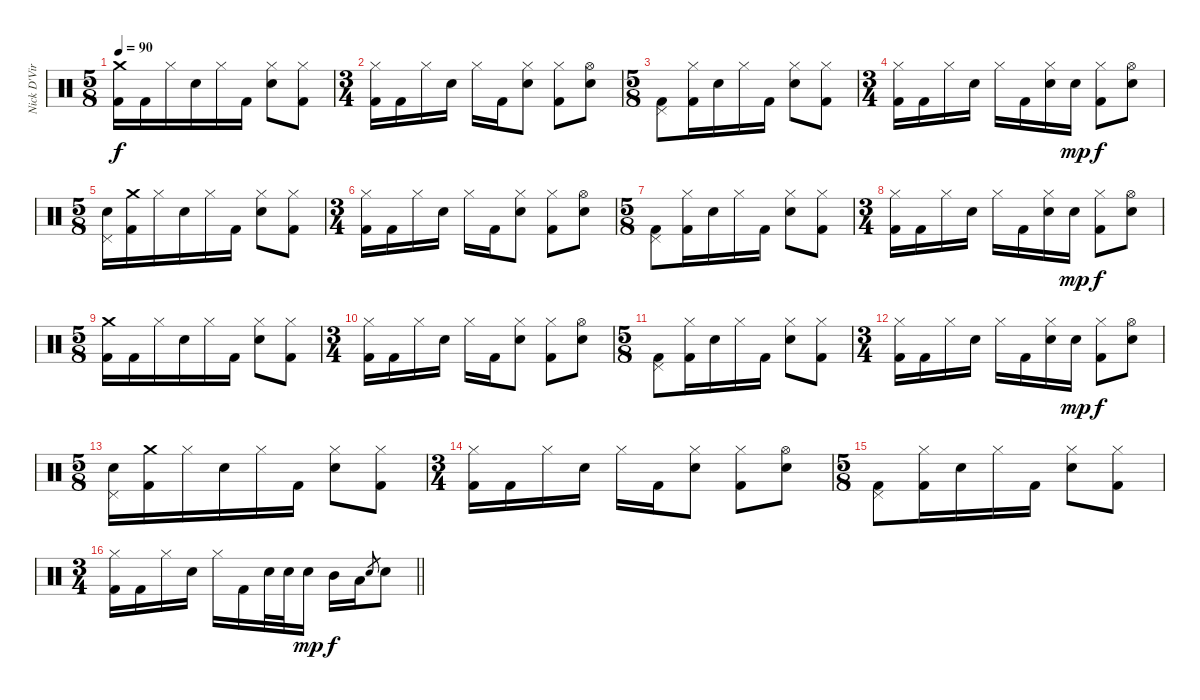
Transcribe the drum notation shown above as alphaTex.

\track ("Nick D'Virgilio" "Nick D'Vir") {instrument percussion}
\staff {score}
\articulation defaults
\ts (5 8)
\tempo 90
\clef neutral
\ks c
("Crash medium (hit)" "Kick (hit) 2").16{dy f} "Kick (hit) 2".16 "Hi-Hat (closed)".16 "Electric Snare (hit)".16 "Hi-Hat (closed)".16 "Kick (hit) 2".16 ("Hi-Hat (closed)" "Electric Snare (hit)").8 ("Hi-Hat (closed)" "Kick (hit) 2").8 |
\ts (3 4)
("Hi-Hat (closed)" "Kick (hit) 2").16 "Kick (hit) 2".16 "Hi-Hat (closed)".16 "Electric Snare (hit)".16 "Hi-Hat (closed)".16 "Kick (hit) 2".16 ("Hi-Hat (closed)" "Electric Snare (hit)").8 ("Hi-Hat (closed)" "Kick (hit) 2").8 ("Hi-Hat (open)" "Electric Snare (hit)").8 |
\ts (5 8)
("Pedal Hi-Hat (hit)" "Kick (hit) 2").8 ("Hi-Hat (closed)" "Kick (hit) 2").16 "Electric Snare (hit)".16 "Hi-Hat (closed)".16 "Kick (hit) 2".16 ("Hi-Hat (closed)" "Electric Snare (hit)").8 ("Hi-Hat (closed)" "Kick (hit) 2").8 |
\ts (3 4)
("Hi-Hat (closed)" "Kick (hit) 2").16 "Kick (hit) 2".16 "Hi-Hat (closed)".16 "Electric Snare (hit)".16 "Hi-Hat (closed)".16 "Kick (hit) 2".16 ("Hi-Hat (closed)" "Electric Snare (hit)").16 "Electric Snare (hit)".16{dy mp} ("Hi-Hat (closed)" "Kick (hit) 2").8{dy f} ("Hi-Hat (open)" "Electric Snare (hit)").8 |
\ts (5 8)
("Pedal Hi-Hat (hit)" "Electric Snare (hit)").16 ("Crash medium (hit)" "Kick (hit) 2").16 "Hi-Hat (closed)".16 "Electric Snare (hit)".16 "Hi-Hat (closed)".16 "Kick (hit) 2".16 ("Hi-Hat (closed)" "Electric Snare (hit)").8 ("Hi-Hat (closed)" "Kick (hit) 2").8 |
\ts (3 4)
("Hi-Hat (closed)" "Kick (hit) 2").16 "Kick (hit) 2".16 "Hi-Hat (closed)".16 "Electric Snare (hit)".16 "Hi-Hat (closed)".16 "Kick (hit) 2".16 ("Hi-Hat (closed)" "Electric Snare (hit)").8 ("Hi-Hat (closed)" "Kick (hit) 2").8 ("Hi-Hat (open)" "Electric Snare (hit)").8 |
\ts (5 8)
("Pedal Hi-Hat (hit)" "Kick (hit) 2").8 ("Hi-Hat (closed)" "Kick (hit) 2").16 "Electric Snare (hit)".16 "Hi-Hat (closed)".16 "Kick (hit) 2".16 ("Hi-Hat (closed)" "Electric Snare (hit)").8 ("Hi-Hat (closed)" "Kick (hit) 2").8 |
\ts (3 4)
("Hi-Hat (closed)" "Kick (hit) 2").16 "Kick (hit) 2".16 "Hi-Hat (closed)".16 "Electric Snare (hit)".16 "Hi-Hat (closed)".16 "Kick (hit) 2".16 ("Hi-Hat (closed)" "Electric Snare (hit)").16 "Electric Snare (hit)".16{dy mp} ("Hi-Hat (closed)" "Kick (hit) 2").8{dy f} ("Hi-Hat (open)" "Electric Snare (hit)").8 |
\ts (5 8)
("Crash medium (hit)" "Kick (hit) 2").16 "Kick (hit) 2".16 "Hi-Hat (closed)".16 "Electric Snare (hit)".16 "Hi-Hat (closed)".16 "Kick (hit) 2".16 ("Hi-Hat (closed)" "Electric Snare (hit)").8 ("Hi-Hat (closed)" "Kick (hit) 2").8 |
\ts (3 4)
("Hi-Hat (closed)" "Kick (hit) 2").16 "Kick (hit) 2".16 "Hi-Hat (closed)".16 "Electric Snare (hit)".16 "Hi-Hat (closed)".16 "Kick (hit) 2".16 ("Hi-Hat (closed)" "Electric Snare (hit)").8 ("Hi-Hat (closed)" "Kick (hit) 2").8 ("Hi-Hat (open)" "Electric Snare (hit)").8 |
\ts (5 8)
("Pedal Hi-Hat (hit)" "Kick (hit) 2").8 ("Hi-Hat (closed)" "Kick (hit) 2").16 "Electric Snare (hit)".16 "Hi-Hat (closed)".16 "Kick (hit) 2".16 ("Hi-Hat (closed)" "Electric Snare (hit)").8 ("Hi-Hat (closed)" "Kick (hit) 2").8 |
\ts (3 4)
("Hi-Hat (closed)" "Kick (hit) 2").16 "Kick (hit) 2".16 "Hi-Hat (closed)".16 "Electric Snare (hit)".16 "Hi-Hat (closed)".16 "Kick (hit) 2".16 ("Hi-Hat (closed)" "Electric Snare (hit)").16 "Electric Snare (hit)".16{dy mp} ("Hi-Hat (closed)" "Kick (hit) 2").8{dy f} ("Hi-Hat (open)" "Electric Snare (hit)").8 |
\ts (5 8)
("Pedal Hi-Hat (hit)" "Electric Snare (hit)").16 ("Crash medium (hit)" "Kick (hit) 2").16 "Hi-Hat (closed)".16 "Electric Snare (hit)".16 "Hi-Hat (closed)".16 "Kick (hit) 2".16 ("Hi-Hat (closed)" "Electric Snare (hit)").8 ("Hi-Hat (closed)" "Kick (hit) 2").8 |
\ts (3 4)
("Hi-Hat (closed)" "Kick (hit) 2").16 "Kick (hit) 2".16 "Hi-Hat (closed)".16 "Electric Snare (hit)".16 "Hi-Hat (closed)".16 "Kick (hit) 2".16 ("Hi-Hat (closed)" "Electric Snare (hit)").8 ("Hi-Hat (closed)" "Kick (hit) 2").8 ("Hi-Hat (open)" "Electric Snare (hit)").8 |
\ts (5 8)
("Pedal Hi-Hat (hit)" "Kick (hit) 2").8 ("Hi-Hat (closed)" "Kick (hit) 2").16 "Electric Snare (hit)".16 "Hi-Hat (closed)".16 "Kick (hit) 2".16 ("Hi-Hat (closed)" "Electric Snare (hit)").8 ("Hi-Hat (closed)" "Kick (hit) 2").8 |
\ts (3 4)
\barLineRight lightlight
("Hi-Hat (closed)" "Kick (hit) 2").16 "Kick (hit) 2".16 "Hi-Hat (closed)".16 "Electric Snare (hit)".16 "Hi-Hat (closed)".16 "Kick (hit) 2".16 "Electric Snare (hit)".32 "Electric Snare (hit)".32 "Electric Snare (hit)".16{dy mp} "Mid Tom (hit)".16{dy f} "Low Tom (hit)".16 "Electric Snare (hit)".8{gr} "Electric Snare (hit)".8
